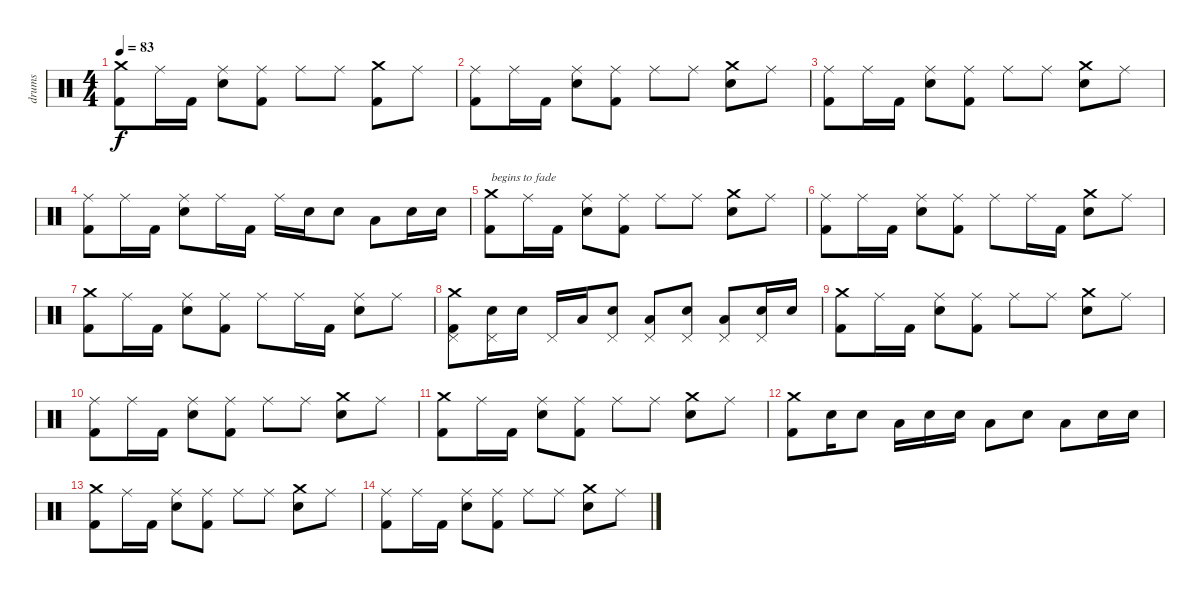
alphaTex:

\track ("drums" "drums") {instrument percussion}
\staff {score}
\articulation defaults
\ts (4 4)
\tempo 83
\clef neutral
\ks c
("Crash medium (hit)" "Kick (hit) 2").8{dy f} "Ride (middle)".16 "Kick (hit) 2".16 ("Ride (middle)" "Electric Snare (hit)").8 ("Kick (hit) 2" "Ride (middle)").8 "Ride (middle)".8 "Ride (middle)".8 ("Crash medium (hit)" "Kick (hit) 2").8 "Ride (middle)".8 |
("Ride (middle)" "Kick (hit) 2").8 "Ride (middle)".16 "Kick (hit) 2".16 ("Ride (middle)" "Electric Snare (hit)").8 ("Ride (middle)" "Kick (hit) 2").8 "Ride (middle)".8 "Ride (middle)".8 ("Crash medium (hit)" "Electric Snare (hit)").8 "Ride (middle)".8 |
("Ride (middle)" "Kick (hit) 2").8 "Ride (middle)".16 "Kick (hit) 2".16 ("Ride (middle)" "Electric Snare (hit)").8 ("Ride (middle)" "Kick (hit) 2").8 "Ride (middle)".8 "Ride (middle)".8 ("Crash medium (hit)" "Electric Snare (hit)").8 "Ride (middle)".8 |
("Ride (middle)" "Kick (hit) 2").8 "Ride (middle)".16 "Kick (hit) 2".16 ("Ride (middle)" "Electric Snare (hit)").8 "Ride (middle)".16 "Kick (hit) 2".16 "Ride (middle)".16 "Electric Snare (hit)".16 "Electric Snare (hit)".8 "Low Tom (hit)".8 "Electric Snare (hit)".16 "Electric Snare (hit)".16 |
("Crash medium (hit)" "Kick (hit) 2").8{txt "begins to fade"} "Ride (middle)".16 "Kick (hit) 2".16 ("Ride (middle)" "Electric Snare (hit)").8 ("Kick (hit) 2" "Ride (middle)").8 "Ride (middle)".8 "Ride (middle)".8 ("Crash medium (hit)" "Electric Snare (hit)").8 "Ride (middle)".8 |
("Ride (middle)" "Kick (hit) 2").8 "Ride (middle)".16 "Kick (hit) 2".16 ("Ride (middle)" "Electric Snare (hit)").8 ("Ride (middle)" "Kick (hit) 2").8 "Ride (middle)".8 "Ride (middle)".16 "Kick (hit) 2".16 ("Crash medium (hit)" "Electric Snare (hit)").8 "Ride (middle)".8 |
("Crash medium (hit)" "Kick (hit) 2").8 "Ride (middle)".16 "Kick (hit) 2".16 ("Ride (middle)" "Electric Snare (hit)").8 ("Ride (middle)" "Kick (hit) 2").8 "Ride (middle)".8 "Ride (middle)".16 "Kick (hit) 2".16 ("Ride (middle)" "Electric Snare (hit)").8 "Ride (middle)".8 |
("Crash medium (hit)" "Kick (hit) 2" "Pedal Hi-Hat (hit)").8 ("Electric Snare (hit)" "Pedal Hi-Hat (hit)").16 "Electric Snare (hit)".16 "Pedal Hi-Hat (hit)".16 "Low Tom (hit)".16 ("Electric Snare (hit)" "Pedal Hi-Hat (hit)").8 ("Low Tom (hit)" "Pedal Hi-Hat (hit)").8 ("Pedal Hi-Hat (hit)" "Electric Snare (hit)").8 ("Low Tom (hit)" "Pedal Hi-Hat (hit)").8 ("Electric Snare (hit)" "Pedal Hi-Hat (hit)").16 "Electric Snare (hit)".16 |
("Crash medium (hit)" "Kick (hit) 2").8 "Ride (middle)".16 "Kick (hit) 2".16 ("Ride (middle)" "Electric Snare (hit)").8 ("Ride (middle)" "Kick (hit) 2").8 "Ride (middle)".8 "Ride (middle)".8 ("Crash medium (hit)" "Electric Snare (hit)").8 "Ride (middle)".8 |
("Ride (middle)" "Kick (hit) 2").8 "Ride (middle)".16 "Kick (hit) 2".16 ("Ride (middle)" "Electric Snare (hit)").8 ("Ride (middle)" "Kick (hit) 2").8 "Ride (middle)".8 "Ride (middle)".8 ("Crash medium (hit)" "Electric Snare (hit)").8 "Ride (middle)".8 |
("Crash medium (hit)" "Kick (hit) 2").8 "Ride (middle)".16 "Kick (hit) 2".16 ("Ride (middle)" "Electric Snare (hit)").8 ("Ride (middle)" "Kick (hit) 2").8 "Ride (middle)".8 "Ride (middle)".8 ("Crash medium (hit)" "Electric Snare (hit)").8 "Ride (middle)".8 |
("Crash medium (hit)" "Kick (hit) 2").8 "Electric Snare (hit)".16 "Electric Snare (hit)".8 "Low Tom (hit)".16 "Electric Snare (hit)".16 "Electric Snare (hit)".16 "Low Tom (hit)".8 "Electric Snare (hit)".8 "Low Tom (hit)".8 "Electric Snare (hit)".16 "Electric Snare (hit)".16 |
("Crash medium (hit)" "Kick (hit) 2").8 "Ride (middle)".16 "Kick (hit) 2".16 ("Ride (middle)" "Electric Snare (hit)").8 ("Ride (middle)" "Kick (hit) 2").8 "Ride (middle)".8 "Ride (middle)".8 ("Crash medium (hit)" "Electric Snare (hit)").8 "Ride (middle)".8 |
("Ride (middle)" "Kick (hit) 2").8 "Ride (middle)".16 "Kick (hit) 2".16 ("Ride (middle)" "Electric Snare (hit)").8 ("Ride (middle)" "Kick (hit) 2").8 "Ride (middle)".8 "Ride (middle)".8 ("Crash medium (hit)" "Electric Snare (hit)").8 "Ride (middle)".8
